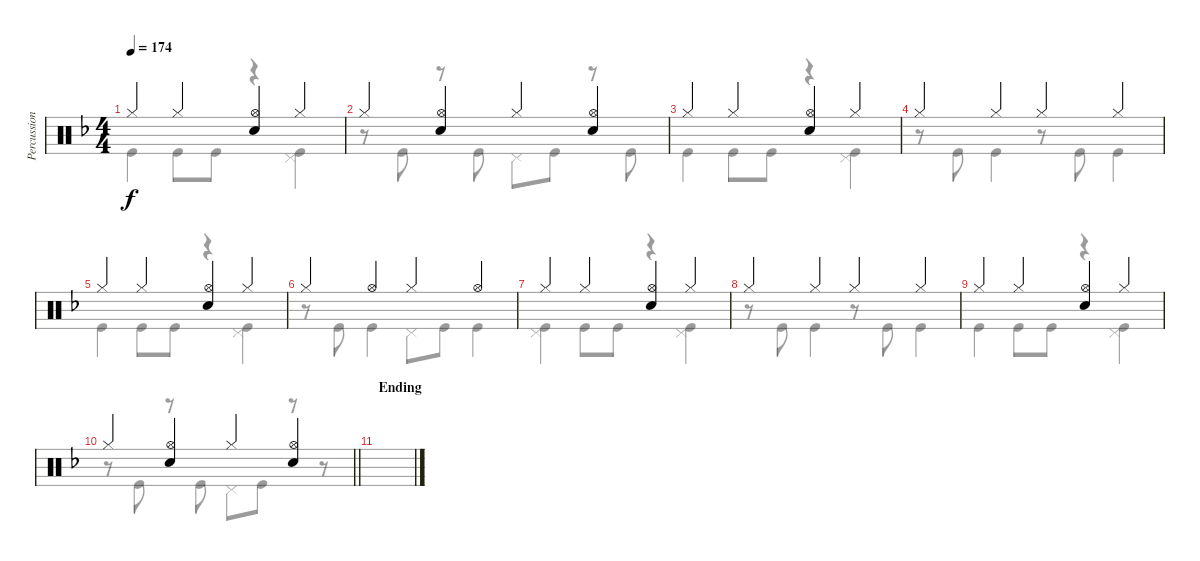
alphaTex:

\track ("Percussion" "Percussion") {instrument percussion}
\staff {score}
\articulation defaults
\voice
\ts (4 4)
\tempo 174
\clef neutral
\ks dminor "Hi-Hat (closed)".4{dy f} "Hi-Hat (closed)".4
("Hi-Hat (open)" "Electric Snare (hit)").4 "Hi-Hat (closed)".4 |
"Hi-Hat (closed)".4 ("Hi-Hat (open)" "Electric Snare (hit)").4 "Hi-Hat (closed)".4 ("Hi-Hat (open)" "Electric Snare (hit)").4 |
"Hi-Hat (closed)".4 "Hi-Hat (closed)".4 ("Hi-Hat (open)" "Electric Snare (hit)").4 "Hi-Hat (closed)".4 |
"Hi-Hat (closed)".4 "Hi-Hat (closed)".4 "Hi-Hat (closed)".4 "Hi-Hat (closed)".4 |
"Hi-Hat (closed)".4 "Hi-Hat (closed)".4 ("Hi-Hat (open)" "Electric Snare (hit)").4 "Hi-Hat (closed)".4 |
"Hi-Hat (closed)".4 "Hi-Hat (open)".4 "Hi-Hat (closed)".4 "Hi-Hat (open)".4 |
"Hi-Hat (closed)".4 "Hi-Hat (closed)".4 ("Hi-Hat (open)" "Electric Snare (hit)").4 "Hi-Hat (closed)".4 |
"Hi-Hat (closed)".4 "Hi-Hat (closed)".4 "Hi-Hat (closed)".4 "Hi-Hat (closed)".4 |
"Hi-Hat (closed)".4 "Hi-Hat (closed)".4 ("Hi-Hat (open)" "Electric Snare (hit)").4 "Hi-Hat (closed)".4 |
\barLineRight lightlight "Hi-Hat (closed)".4
("Hi-Hat (open)" "Electric Snare (hit)").4 "Hi-Hat (closed)".4 ("Hi-Hat (open)" "Electric Snare (hit)").4 |
\section ("" "Ending")
|
|
|
\voice
\clef neutral
\ottava regular
\simile none
\ks dminor "Kick (hit)".4{dy f} "Kick (hit)".8 "Kick (hit)".8
r.4 ("Pedal Hi-Hat (hit)" "Kick (hit)").4 |
r.8 "Kick (hit)".8 r.8 "Kick (hit)".8 "Pedal Hi-Hat (hit)".8 "Kick (hit)".8 r.8 "Kick (hit)".8 |
"Kick (hit)".4 "Kick (hit)".8 "Kick (hit)".8 r.4 ("Pedal Hi-Hat (hit)" "Kick (hit)").4 |
r.8 "Kick (hit)".8 "Kick (hit)".4 r.8 "Kick (hit)".8 "Kick (hit)".4 |
"Kick (hit)".4 "Kick (hit)".8 "Kick (hit)".8 r.4 ("Pedal Hi-Hat (hit)" "Kick (hit)").4 |
r.8 "Kick (hit)".8 "Kick (hit)".4 "Pedal Hi-Hat (hit)".8 "Kick (hit)".8 "Kick (hit)".4 |
("Pedal Hi-Hat (hit)" "Kick (hit)").4 "Kick (hit)".8 "Kick (hit)".8 r.4 ("Pedal Hi-Hat (hit)" "Kick (hit)").4 |
r.8 "Kick (hit)".8 "Kick (hit)".4 r.8 "Kick (hit)".8 "Kick (hit)".4 |
"Kick (hit)".4 "Kick (hit)".8 "Kick (hit)".8 r.4 ("Pedal Hi-Hat (hit)" "Kick (hit)").4 |
\barLineRight lightlight
r.8 "Kick (hit)".8 r.8 "Kick (hit)".8 "Pedal Hi-Hat (hit)".8 "Kick (hit)".8 r.8 r.8 |
|
|
|
